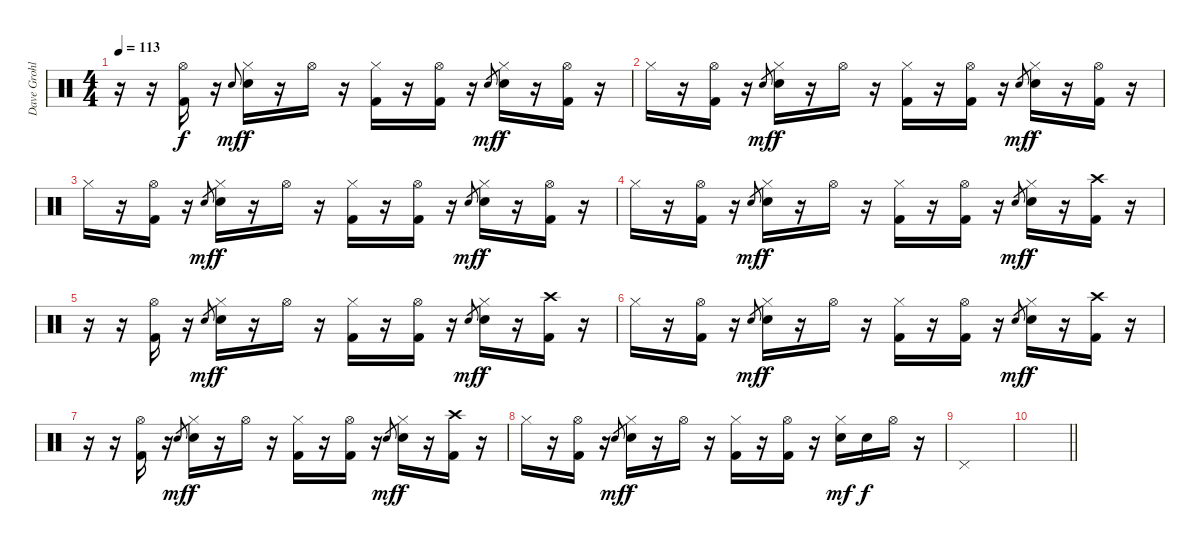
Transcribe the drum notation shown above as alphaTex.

\track ("Dave Grohl" "Dave Grohl") {instrument percussion}
\staff {score}
\articulation defaults
\ts (4 4)
\tempo 113
\clef neutral
\ks c
r.16{dy f} r.16 ("Hi-Hat (open)" "Kick (hit) 2").16 r.16 "Electric Snare (hit)".8{gr onbeat dy mf} ("Hi-Hat (closed)" "Electric Snare (hit)").16{dy f} r.16 "Hi-Hat (open)".16 r.16 ("Hi-Hat (closed)" "Kick (hit) 2").16 r.16 ("Hi-Hat (open)" "Kick (hit) 2").16 r.16 "Electric Snare (hit)".8{gr dy mf} ("Hi-Hat (closed)" "Electric Snare (hit)").16{dy f} r.16 ("Hi-Hat (open)" "Kick (hit) 2").16 r.16 |
"Hi-Hat (closed)".16 r.16 ("Hi-Hat (open)" "Kick (hit) 2").16 r.16 "Electric Snare (hit)".8{gr dy mf} ("Hi-Hat (closed)" "Electric Snare (hit)").16{dy f} r.16 "Hi-Hat (open)".16 r.16 ("Hi-Hat (closed)" "Kick (hit) 2").16 r.16 ("Hi-Hat (open)" "Kick (hit) 2").16 r.16 "Electric Snare (hit)".8{gr dy mf} ("Hi-Hat (closed)" "Electric Snare (hit)").16{dy f} r.16 ("Hi-Hat (open)" "Kick (hit) 2").16 r.16 |
"Hi-Hat (closed)".16 r.16 ("Hi-Hat (open)" "Kick (hit) 2").16 r.16 "Electric Snare (hit)".8{gr dy mf} ("Hi-Hat (closed)" "Electric Snare (hit)").16{dy f} r.16 "Hi-Hat (open)".16 r.16 ("Hi-Hat (closed)" "Kick (hit) 2").16 r.16 ("Hi-Hat (open)" "Kick (hit) 2").16 r.16 "Electric Snare (hit)".8{gr dy mf} ("Hi-Hat (closed)" "Electric Snare (hit)").16{dy f} r.16 ("Hi-Hat (open)" "Kick (hit) 2").16 r.16 |
"Hi-Hat (closed)".16 r.16 ("Hi-Hat (open)" "Kick (hit) 2").16 r.16 "Electric Snare (hit)".8{gr dy mf} ("Hi-Hat (closed)" "Electric Snare (hit)").16{dy f} r.16 "Hi-Hat (open)".16 r.16 ("Hi-Hat (closed)" "Kick (hit) 2").16 r.16 ("Hi-Hat (open)" "Kick (hit) 2").16 r.16 "Electric Snare (hit)".8{gr dy mf} ("Hi-Hat (closed)" "Electric Snare (hit)").16{dy f} r.16 ("Crash high (hit)" "Kick (hit) 2").16 r.16 |
r.16 r.16 ("Hi-Hat (open)" "Kick (hit) 2").16 r.16 "Electric Snare (hit)".8{gr dy mf} ("Hi-Hat (closed)" "Electric Snare (hit)").16{dy f} r.16 "Hi-Hat (open)".16 r.16 ("Hi-Hat (closed)" "Kick (hit) 2").16 r.16 ("Hi-Hat (open)" "Kick (hit) 2").16 r.16 "Electric Snare (hit)".8{gr dy mf} ("Hi-Hat (closed)" "Electric Snare (hit)").16{dy f} r.16 ("Crash high (hit)" "Kick (hit) 2").16 r.16 |
"Hi-Hat (closed)".16 r.16 ("Hi-Hat (open)" "Kick (hit) 2").16 r.16 "Electric Snare (hit)".8{gr dy mf} ("Hi-Hat (closed)" "Electric Snare (hit)").16{dy f} r.16 "Hi-Hat (open)".16 r.16 ("Hi-Hat (closed)" "Kick (hit) 2").16 r.16 ("Hi-Hat (open)" "Kick (hit) 2").16 r.16 "Electric Snare (hit)".8{gr dy mf} ("Hi-Hat (closed)" "Electric Snare (hit)").16{dy f} r.16 ("Crash high (hit)" "Kick (hit) 2").16 r.16 |
r.16 r.16 ("Hi-Hat (open)" "Kick (hit) 2").16 r.16 "Electric Snare (hit)".8{gr dy mf} ("Hi-Hat (closed)" "Electric Snare (hit)").16{dy f} r.16 "Hi-Hat (open)".16 r.16 ("Hi-Hat (closed)" "Kick (hit) 2").16 r.16 ("Hi-Hat (open)" "Kick (hit) 2").16 r.16 "Electric Snare (hit)".8{gr dy mf} ("Hi-Hat (closed)" "Electric Snare (hit)").16{dy f} r.16 ("Crash high (hit)" "Kick (hit) 2").16 r.16 |
"Hi-Hat (closed)".16 r.16 ("Hi-Hat (open)" "Kick (hit) 2").16 r.16 "Electric Snare (hit)".8{gr dy mf} ("Hi-Hat (closed)" "Electric Snare (hit)").16{dy f} r.16 "Hi-Hat (open)".16 r.16 ("Hi-Hat (closed)" "Kick (hit) 2").16 r.16 ("Hi-Hat (open)" "Kick (hit) 2").16 r.16 ("Hi-Hat (closed)" "Electric Snare (hit)").16{dy mf} "Electric Snare (hit)".16{dy f} "Hi-Hat (open)".16 r.16 |
"Pedal Hi-Hat (hit)".1 |
\barLineRight lightlight
